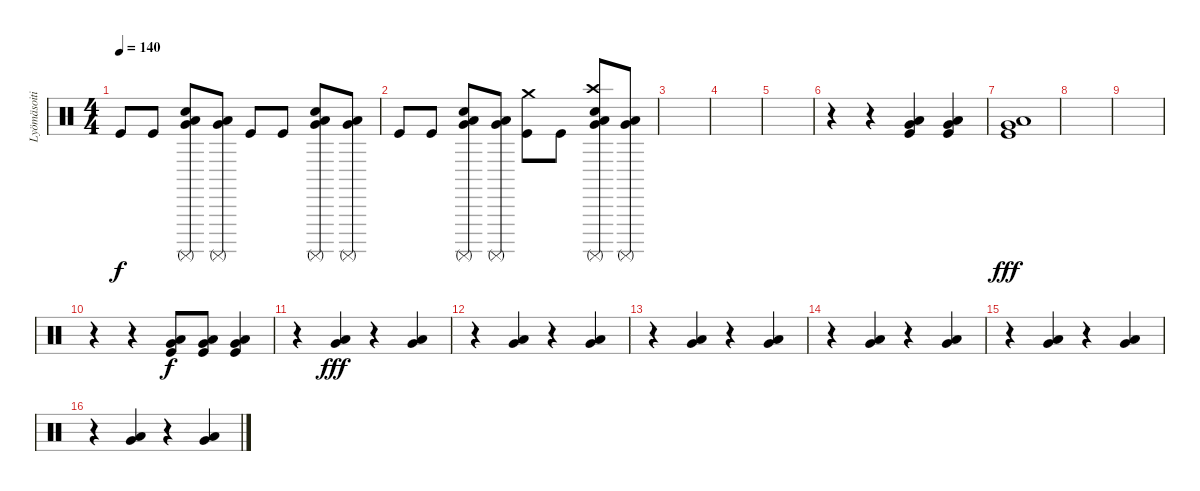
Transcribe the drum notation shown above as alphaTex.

\track ("Lyömäsoitin" "Lyömäsoiti") {instrument percussion}
\staff {score}
\articulation defaults
\ts (4 4)
\tempo 140
\clef neutral
\ks c "Kick (hit)".8{dy f} "Kick (hit)".8
("Surdo (mute)" "Low Floor Tom (hit)" "Very Low Tom (hit)" "Electric Snare (hit)").8 ("Surdo (mute)" "Low Floor Tom (hit)" "Very Low Tom (hit)").8 "Kick (hit)".8 "Kick (hit)".8 ("Surdo (mute)" "Low Floor Tom (hit)" "Very Low Tom (hit)" "Electric Snare (hit)").8 ("Surdo (mute)" "Low Floor Tom (hit)" "Very Low Tom (hit)").8 |
"Kick (hit)".8 "Kick (hit)".8 ("Surdo (mute)" "Low Floor Tom (hit)" "Very Low Tom (hit)" "Electric Snare (hit)").8 ("Surdo (mute)" "Low Floor Tom (hit)" "Very Low Tom (hit)").8 ("Kick (hit)" "Crash medium (hit)").8 "Kick (hit)".8 ("Surdo (mute)" "Low Floor Tom (hit)" "Very Low Tom (hit)" "Electric Snare (hit)" "Crash high (hit)").8 ("Surdo (mute)" "Low Floor Tom (hit)" "Very Low Tom (hit)").8 |
|
|
|
r.4 r.4 ("Low Floor Tom (hit)" "Very Low Tom (hit)" "Kick (hit)").4 ("Low Floor Tom (hit)" "Very Low Tom (hit)" "Kick (hit)").4 |
("Low Floor Tom (hit)" "Very Low Tom (hit)" "Kick (hit)").1{dy fff} |
|
|
r.4 r.4 ("Low Floor Tom (hit)" "Very Low Tom (hit)" "Kick (hit)").8{dy f} ("Low Floor Tom (hit)" "Very Low Tom (hit)" "Kick (hit)").8 ("Low Floor Tom (hit)" "Very Low Tom (hit)" "Kick (hit)").4 |
r.4 ("Low Floor Tom (hit)" "Very Low Tom (hit)").4{dy fff} r.4 ("Low Floor Tom (hit)" "Very Low Tom (hit)").4 |
r.4 ("Low Floor Tom (hit)" "Very Low Tom (hit)").4 r.4 ("Low Floor Tom (hit)" "Very Low Tom (hit)").4 |
r.4 ("Low Floor Tom (hit)" "Very Low Tom (hit)").4 r.4 ("Low Floor Tom (hit)" "Very Low Tom (hit)").4 |
r.4 ("Low Floor Tom (hit)" "Very Low Tom (hit)").4 r.4 ("Low Floor Tom (hit)" "Very Low Tom (hit)").4 |
r.4 ("Low Floor Tom (hit)" "Very Low Tom (hit)").4 r.4 ("Low Floor Tom (hit)" "Very Low Tom (hit)").4 |
r.4 ("Low Floor Tom (hit)" "Very Low Tom (hit)").4 r.4 ("Low Floor Tom (hit)" "Very Low Tom (hit)").4
